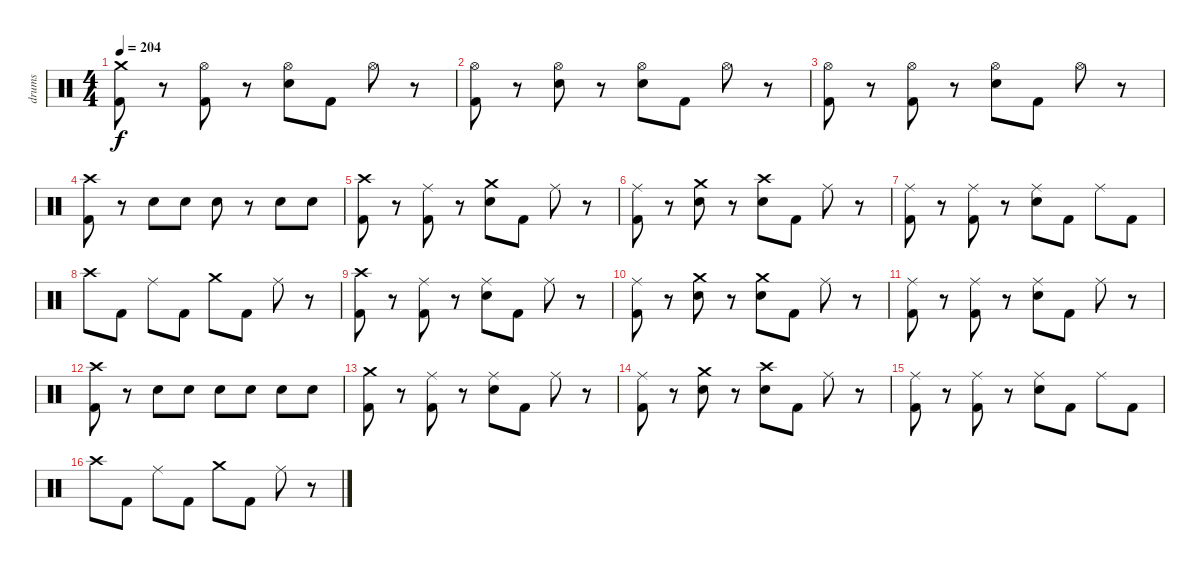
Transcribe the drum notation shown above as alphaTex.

\track ("drums" "drums") {instrument percussion}
\staff {score}
\articulation defaults
\ts (4 4)
\tempo 204
\clef neutral
\ks c
("Crash medium (hit)" "Kick (hit) 2").8{dy f} r.8 ("Hi-Hat (open)" "Kick (hit) 2").8 r.8 ("Hi-Hat (open)" "Snare (hit) 2").8 "Kick (hit) 2".8 "Hi-Hat (open)".8 r.8 |
("Hi-Hat (open)" "Kick (hit) 2").8 r.8 ("Hi-Hat (open)" "Snare (hit) 2").8 r.8 ("Hi-Hat (open)" "Snare (hit) 2").8 "Kick (hit) 2".8 "Hi-Hat (open)".8 r.8 |
("Hi-Hat (open)" "Kick (hit) 2").8 r.8 ("Hi-Hat (open)" "Kick (hit) 2").8 r.8 ("Hi-Hat (open)" "Snare (hit) 2").8 "Kick (hit) 2".8 "Hi-Hat (open)".8 r.8 |
("Crash high (hit)" "Kick (hit) 2").8 r.8 "Snare (hit) 2".8 "Snare (hit) 2".8 "Snare (hit) 2".8 r.8 "Snare (hit) 2".8 "Snare (hit) 2".8 |
("Crash high (hit)" "Kick (hit) 2").8 r.8 ("Ride (middle)" "Kick (hit) 2").8 r.8 ("Crash medium (hit)" "Snare (hit) 2").8 "Kick (hit) 2".8 "Ride (middle)".8 r.8 |
("Ride (middle)" "Kick (hit) 2").8 r.8 ("Crash medium (hit)" "Snare (hit) 2").8 r.8 ("Crash high (hit)" "Snare (hit) 2").8 "Kick (hit) 2".8 "Ride (middle)".8 r.8 |
("Ride (middle)" "Kick (hit) 2").8 r.8 ("Ride (middle)" "Kick (hit) 2").8 r.8 ("Ride (middle)" "Snare (hit) 2").8 "Kick (hit) 2".8 "Ride (middle)".8 "Kick (hit) 2".8 |
"Crash high (hit)".8 "Kick (hit) 2".8 "Ride (middle)".8 "Kick (hit) 2".8 "Crash medium (hit)".8 "Kick (hit) 2".8 "Ride (middle)".8 r.8 |
("Crash high (hit)" "Kick (hit) 2").8 r.8 ("Ride (middle)" "Kick (hit) 2").8 r.8 ("Ride (middle)" "Snare (hit) 2").8 "Kick (hit) 2".8 "Ride (middle)".8 r.8 |
("Ride (middle)" "Kick (hit) 2").8 r.8 ("Crash medium (hit)" "Snare (hit) 2").8 r.8 ("Crash medium (hit)" "Snare (hit) 2").8 "Kick (hit) 2".8 "Ride (middle)".8 r.8 |
("Ride (middle)" "Kick (hit) 2").8 r.8 ("Ride (middle)" "Kick (hit) 2").8 r.8 ("Ride (middle)" "Snare (hit) 2").8 "Kick (hit) 2".8 "Ride (middle)".8 r.8 |
("Crash high (hit)" "Kick (hit) 2").8 r.8 "Snare (hit) 2".8 "Snare (hit) 2".8 "Snare (hit) 2".8 "Snare (hit) 2".8 "Snare (hit) 2".8 "Snare (hit) 2".8 |
("Crash medium (hit)" "Kick (hit) 2").8 r.8 ("Ride (middle)" "Kick (hit) 2").8 r.8 ("Ride (middle)" "Snare (hit) 2").8 "Kick (hit) 2".8 "Ride (middle)".8 r.8 |
("Ride (middle)" "Kick (hit) 2").8 r.8 ("Crash medium (hit)" "Snare (hit) 2").8 r.8 ("Crash high (hit)" "Snare (hit) 2").8 "Kick (hit) 2".8 "Ride (middle)".8 r.8 |
("Ride (middle)" "Kick (hit) 2").8 r.8 ("Ride (middle)" "Kick (hit) 2").8 r.8 ("Ride (middle)" "Snare (hit) 2").8 "Kick (hit) 2".8 "Ride (middle)".8 "Kick (hit) 2".8 |
"Crash high (hit)".8 "Kick (hit) 2".8 "Ride (middle)".8 "Kick (hit) 2".8 "Crash medium (hit)".8 "Kick (hit) 2".8 "Ride (middle)".8 r.8
